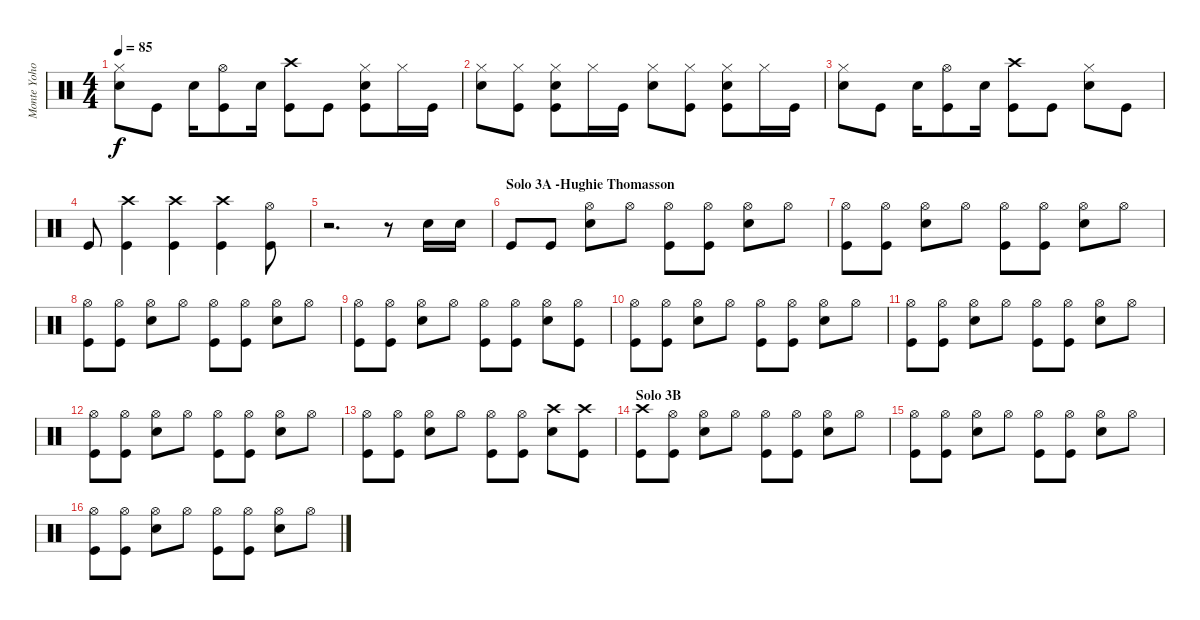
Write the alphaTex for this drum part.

\track ("Monte Yoho - Drums" "Monte Yoho") {instrument percussion}
\staff {score}
\articulation defaults
\ts (4 4)
\tempo 85
\clef neutral
\ks c
("Hi-Hat (closed)" "Snare (hit) 2").8{dy f} "Kick (hit)".8 "Snare (hit) 2".16 ("Hi-Hat (open)" "Kick (hit)").8 "Snare (hit) 2".16 ("Crash high (hit)" "Kick (hit)").8 "Kick (hit)".8 ("Hi-Hat (closed)" "Snare (hit) 2" "Kick (hit)").8 "Hi-Hat (closed)".16 "Kick (hit)".16 |
("Hi-Hat (closed)" "Snare (hit) 2").8 ("Hi-Hat (closed)" "Kick (hit)").8 ("Hi-Hat (closed)" "Snare (hit) 2" "Kick (hit)").8 "Hi-Hat (closed)".16 "Kick (hit)".16 ("Hi-Hat (closed)" "Snare (hit) 2").8 ("Hi-Hat (closed)" "Kick (hit)").8 ("Hi-Hat (closed)" "Snare (hit) 2" "Kick (hit)").8 "Hi-Hat (closed)".16 "Kick (hit)".16 |
("Hi-Hat (closed)" "Snare (hit) 2").8 "Kick (hit)".8 "Snare (hit) 2".16 ("Hi-Hat (open)" "Kick (hit)").8 "Snare (hit) 2".16 ("Crash high (hit)" "Kick (hit)").8 "Kick (hit)".8 ("Hi-Hat (closed)" "Snare (hit) 2").8 "Kick (hit)".8 |
"Kick (hit)".8 ("Crash high (hit)" "Kick (hit)").4 ("Crash high (hit)" "Kick (hit)").4 ("Crash high (hit)" "Kick (hit)").4 ("Hi-Hat (open)" "Kick (hit)").8 |
r.2{d} r.8 "Snare (hit) 2".16 "Snare (hit) 2".16 |
\section ("" "Solo 3A -Hughie Thomasson")
"Kick (hit)".8 "Kick (hit)".8 ("Hi-Hat (open)" "Snare (hit) 2").8 "Hi-Hat (open)".8 ("Hi-Hat (open)" "Kick (hit)").8 ("Hi-Hat (open)" "Kick (hit)").8 ("Hi-Hat (open)" "Snare (hit) 2").8 "Hi-Hat (open)".8 |
("Hi-Hat (open)" "Kick (hit)").8 ("Hi-Hat (open)" "Kick (hit)").8 ("Hi-Hat (open)" "Snare (hit) 2").8 "Hi-Hat (open)".8 ("Hi-Hat (open)" "Kick (hit)").8 ("Hi-Hat (open)" "Kick (hit)").8 ("Hi-Hat (open)" "Snare (hit) 2").8 "Hi-Hat (open)".8 |
("Hi-Hat (open)" "Kick (hit)").8 ("Hi-Hat (open)" "Kick (hit)").8 ("Hi-Hat (open)" "Snare (hit) 2").8 "Hi-Hat (open)".8 ("Hi-Hat (open)" "Kick (hit)").8 ("Hi-Hat (open)" "Kick (hit)").8 ("Hi-Hat (open)" "Snare (hit) 2").8 "Hi-Hat (open)".8 |
("Hi-Hat (open)" "Kick (hit)").8 ("Hi-Hat (open)" "Kick (hit)").8 ("Hi-Hat (open)" "Snare (hit) 2").8 "Hi-Hat (open)".8 ("Hi-Hat (open)" "Kick (hit)").8 ("Hi-Hat (open)" "Kick (hit)").8 ("Hi-Hat (open)" "Snare (hit) 2").8 ("Hi-Hat (open)" "Kick (hit)").8 |
("Hi-Hat (open)" "Kick (hit)").8 ("Hi-Hat (open)" "Kick (hit)").8 ("Hi-Hat (open)" "Snare (hit) 2").8 "Hi-Hat (open)".8 ("Hi-Hat (open)" "Kick (hit)").8 ("Hi-Hat (open)" "Kick (hit)").8 ("Hi-Hat (open)" "Snare (hit) 2").8 "Hi-Hat (open)".8 |
("Hi-Hat (open)" "Kick (hit)").8 ("Hi-Hat (open)" "Kick (hit)").8 ("Hi-Hat (open)" "Snare (hit) 2").8 "Hi-Hat (open)".8 ("Hi-Hat (open)" "Kick (hit)").8 ("Hi-Hat (open)" "Kick (hit)").8 ("Hi-Hat (open)" "Snare (hit) 2").8 "Hi-Hat (open)".8 |
("Hi-Hat (open)" "Kick (hit)").8 ("Hi-Hat (open)" "Kick (hit)").8 ("Hi-Hat (open)" "Snare (hit) 2").8 "Hi-Hat (open)".8 ("Hi-Hat (open)" "Kick (hit)").8 ("Hi-Hat (open)" "Kick (hit)").8 ("Hi-Hat (open)" "Snare (hit) 2").8 "Hi-Hat (open)".8 |
("Hi-Hat (open)" "Kick (hit)").8 ("Hi-Hat (open)" "Kick (hit)").8 ("Hi-Hat (open)" "Snare (hit) 2").8 "Hi-Hat (open)".8 ("Hi-Hat (open)" "Kick (hit)").8 ("Hi-Hat (open)" "Kick (hit)").8 ("Crash high (hit)" "Snare (hit) 2").8 ("Crash high (hit)" "Kick (hit)").8 |
\section ("" "Solo 3B")
("Crash high (hit)" "Kick (hit)").8 ("Hi-Hat (open)" "Kick (hit)").8 ("Hi-Hat (open)" "Snare (hit) 2").8 "Hi-Hat (open)".8 ("Hi-Hat (open)" "Kick (hit)").8 ("Hi-Hat (open)" "Kick (hit)").8 ("Hi-Hat (open)" "Snare (hit) 2").8 "Hi-Hat (open)".8 |
("Hi-Hat (open)" "Kick (hit)").8 ("Hi-Hat (open)" "Kick (hit)").8 ("Hi-Hat (open)" "Snare (hit) 2").8 "Hi-Hat (open)".8 ("Hi-Hat (open)" "Kick (hit)").8 ("Hi-Hat (open)" "Kick (hit)").8 ("Hi-Hat (open)" "Snare (hit) 2").8 "Hi-Hat (open)".8 |
("Hi-Hat (open)" "Kick (hit)").8 ("Hi-Hat (open)" "Kick (hit)").8 ("Hi-Hat (open)" "Snare (hit) 2").8 "Hi-Hat (open)".8 ("Hi-Hat (open)" "Kick (hit)").8 ("Hi-Hat (open)" "Kick (hit)").8 ("Hi-Hat (open)" "Snare (hit) 2").8 "Hi-Hat (open)".8
